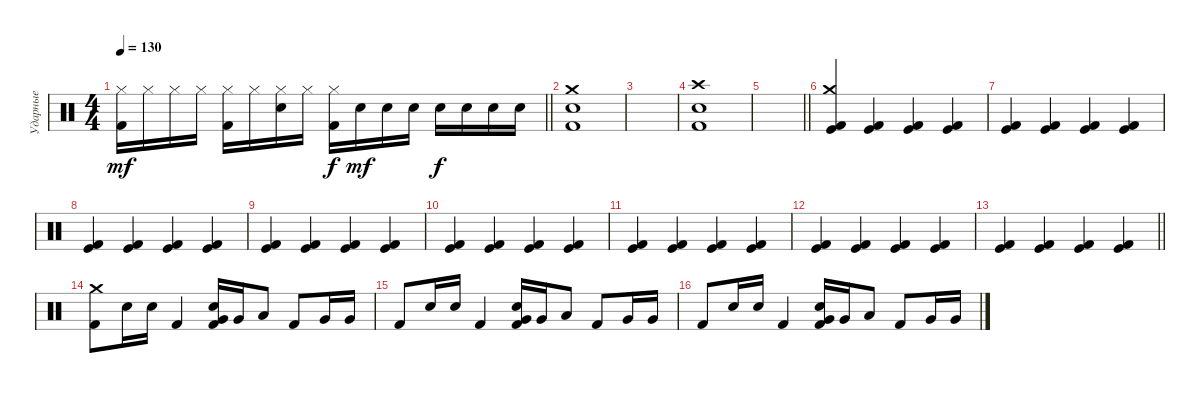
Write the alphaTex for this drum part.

\track ("Ударные" "Ударные") {instrument percussion}
\staff {score}
\articulation defaults
\ts (4 4)
\tempo 130
\clef neutral
\barLineRight lightlight
\ks c
("Hi-Hat (closed)" "Kick (hit) 2").16{dy mf} "Hi-Hat (closed)".16 "Hi-Hat (closed)".16 "Hi-Hat (closed)".16 ("Hi-Hat (closed)" "Kick (hit) 2").16 "Hi-Hat (closed)".16 ("Hi-Hat (closed)" "Electric Snare (hit)").16 "Hi-Hat (closed)".16 ("Hi-Hat (closed)" "Kick (hit) 2").16{dy f} "Electric Snare (hit)".16{dy mf} "Electric Snare (hit)".16 "Electric Snare (hit)".16 "Electric Snare (hit)".16{dy f} "Electric Snare (hit)".16 "Electric Snare (hit)".16 "Electric Snare (hit)".16 |
("Electric Snare (hit)" "Kick (hit) 2" "Crash medium (hit)").1 |
|
("Electric Snare (hit)" "Kick (hit) 2" "Crash high (hit)").1 |
\barLineRight lightlight
|
("Kick (hit) 2" "Kick (hit)" "Crash medium (hit)").4 ("Kick (hit) 2" "Kick (hit)").4 ("Kick (hit) 2" "Kick (hit)").4 ("Kick (hit) 2" "Kick (hit)").4 |
("Kick (hit) 2" "Kick (hit)").4 ("Kick (hit) 2" "Kick (hit)").4 ("Kick (hit) 2" "Kick (hit)").4 ("Kick (hit) 2" "Kick (hit)").4 |
("Kick (hit) 2" "Kick (hit)").4 ("Kick (hit) 2" "Kick (hit)").4 ("Kick (hit) 2" "Kick (hit)").4 ("Kick (hit) 2" "Kick (hit)").4 |
("Kick (hit) 2" "Kick (hit)").4 ("Kick (hit) 2" "Kick (hit)").4 ("Kick (hit) 2" "Kick (hit)").4 ("Kick (hit) 2" "Kick (hit)").4 |
("Kick (hit) 2" "Kick (hit)").4 ("Kick (hit) 2" "Kick (hit)").4 ("Kick (hit) 2" "Kick (hit)").4 ("Kick (hit) 2" "Kick (hit)").4 |
("Kick (hit) 2" "Kick (hit)").4 ("Kick (hit) 2" "Kick (hit)").4 ("Kick (hit) 2" "Kick (hit)").4 ("Kick (hit) 2" "Kick (hit)").4 |
("Kick (hit) 2" "Kick (hit)").4 ("Kick (hit) 2" "Kick (hit)").4 ("Kick (hit) 2" "Kick (hit)").4 ("Kick (hit) 2" "Kick (hit)").4 |
\barLineRight lightlight
("Kick (hit) 2" "Kick (hit)").4 ("Kick (hit) 2" "Kick (hit)").4 ("Kick (hit) 2" "Kick (hit)").4 ("Kick (hit) 2" "Kick (hit)").4 |
("Crash medium (hit)" "Kick (hit) 2").8 "Electric Snare (hit)".16 "Electric Snare (hit)".16 "Kick (hit) 2".4 ("Electric Snare (hit)" "Kick (hit) 2" "Very Low Tom (hit)").16 "Very Low Tom (hit)".16 "Low Floor Tom (hit)".8 "Kick (hit) 2".8 "Very Low Tom (hit)".16 "Very Low Tom (hit)".16 |
"Kick (hit) 2".8 "Electric Snare (hit)".16 "Electric Snare (hit)".16 "Kick (hit) 2".4 ("Electric Snare (hit)" "Kick (hit) 2" "Very Low Tom (hit)").16 "Very Low Tom (hit)".16 "Low Floor Tom (hit)".8 "Kick (hit) 2".8 "Very Low Tom (hit)".16 "Very Low Tom (hit)".16 |
"Kick (hit) 2".8 "Electric Snare (hit)".16 "Electric Snare (hit)".16 "Kick (hit) 2".4 ("Electric Snare (hit)" "Kick (hit) 2" "Very Low Tom (hit)").16 "Very Low Tom (hit)".16 "Low Floor Tom (hit)".8 "Kick (hit) 2".8 "Very Low Tom (hit)".16 "Very Low Tom (hit)".16
